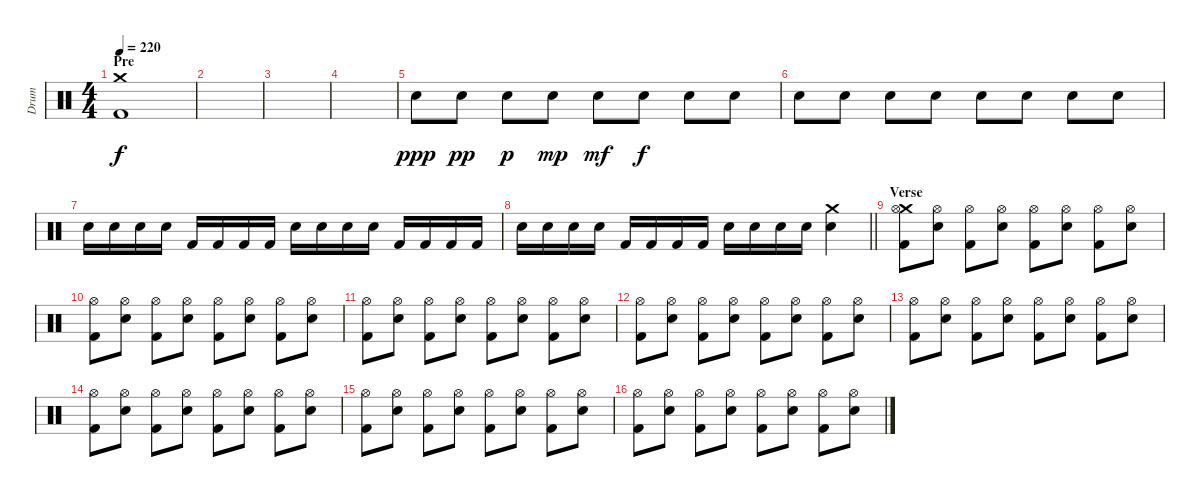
\track ("Drum" "Drum") {instrument percussion}
\staff {score}
\articulation defaults
\ts (4 4)
\section ("" "Pre")
\tempo 220
\clef neutral
\ks c
("Crash medium (hit)" "Kick (hit) 2").1{dy f} |
|
|
|
"Electric Snare (hit)".8{dy ppp} "Electric Snare (hit)".8{dy pp} "Electric Snare (hit)".8{dy p} "Electric Snare (hit)".8{dy mp} "Electric Snare (hit)".8{dy mf} "Electric Snare (hit)".8{dy f} "Electric Snare (hit)".8 "Electric Snare (hit)".8 |
"Electric Snare (hit)".8 "Electric Snare (hit)".8 "Electric Snare (hit)".8 "Electric Snare (hit)".8 "Electric Snare (hit)".8 "Electric Snare (hit)".8 "Electric Snare (hit)".8 "Electric Snare (hit)".8 |
"Electric Snare (hit)".16 "Electric Snare (hit)".16 "Electric Snare (hit)".16 "Electric Snare (hit)".16 "Kick (hit) 2".16 "Kick (hit) 2".16 "Kick (hit) 2".16 "Kick (hit) 2".16 "Electric Snare (hit)".16 "Electric Snare (hit)".16 "Electric Snare (hit)".16 "Electric Snare (hit)".16 "Kick (hit) 2".16 "Kick (hit) 2".16 "Kick (hit) 2".16 "Kick (hit) 2".16 |
\barLineRight lightlight "Electric Snare (hit)".16 "Electric Snare (hit)".16 "Electric Snare (hit)".16 "Electric Snare (hit)".16 "Kick (hit) 2".16 "Kick (hit) 2".16 "Kick (hit) 2".16 "Kick (hit) 2".16 "Electric Snare (hit)".16 "Electric Snare (hit)".16 "Electric Snare (hit)".16 "Electric Snare (hit)".16
("Crash medium (hit)" "Electric Snare (hit)").4 |
\section ("" "Verse")
("Crash medium (hit)" "Hi-Hat (open)" "Kick (hit) 2").8 ("Hi-Hat (open)" "Electric Snare (hit)").8 ("Hi-Hat (open)" "Kick (hit) 2").8 ("Hi-Hat (open)" "Electric Snare (hit)").8 ("Hi-Hat (open)" "Kick (hit) 2").8 ("Hi-Hat (open)" "Electric Snare (hit)").8 ("Hi-Hat (open)" "Kick (hit) 2").8 ("Hi-Hat (open)" "Electric Snare (hit)").8 |
("Hi-Hat (open)" "Kick (hit) 2").8 ("Hi-Hat (open)" "Electric Snare (hit)").8 ("Hi-Hat (open)" "Kick (hit) 2").8 ("Hi-Hat (open)" "Electric Snare (hit)").8 ("Hi-Hat (open)" "Kick (hit) 2").8 ("Hi-Hat (open)" "Electric Snare (hit)").8 ("Hi-Hat (open)" "Kick (hit) 2").8 ("Hi-Hat (open)" "Electric Snare (hit)").8 |
("Hi-Hat (open)" "Kick (hit) 2").8 ("Hi-Hat (open)" "Electric Snare (hit)").8 ("Hi-Hat (open)" "Kick (hit) 2").8 ("Hi-Hat (open)" "Electric Snare (hit)").8 ("Hi-Hat (open)" "Kick (hit) 2").8 ("Hi-Hat (open)" "Electric Snare (hit)").8 ("Hi-Hat (open)" "Kick (hit) 2").8 ("Hi-Hat (open)" "Electric Snare (hit)").8 |
("Hi-Hat (open)" "Kick (hit) 2").8 ("Hi-Hat (open)" "Electric Snare (hit)").8 ("Hi-Hat (open)" "Kick (hit) 2").8 ("Hi-Hat (open)" "Electric Snare (hit)").8 ("Hi-Hat (open)" "Kick (hit) 2").8 ("Hi-Hat (open)" "Electric Snare (hit)").8 ("Hi-Hat (open)" "Kick (hit) 2").8 ("Hi-Hat (open)" "Electric Snare (hit)").8 |
("Hi-Hat (open)" "Kick (hit) 2").8 ("Hi-Hat (open)" "Electric Snare (hit)").8 ("Hi-Hat (open)" "Kick (hit) 2").8 ("Hi-Hat (open)" "Electric Snare (hit)").8 ("Hi-Hat (open)" "Kick (hit) 2").8 ("Hi-Hat (open)" "Electric Snare (hit)").8 ("Hi-Hat (open)" "Kick (hit) 2").8 ("Hi-Hat (open)" "Electric Snare (hit)").8 |
("Hi-Hat (open)" "Kick (hit) 2").8 ("Hi-Hat (open)" "Electric Snare (hit)").8 ("Hi-Hat (open)" "Kick (hit) 2").8 ("Hi-Hat (open)" "Electric Snare (hit)").8 ("Hi-Hat (open)" "Kick (hit) 2").8 ("Hi-Hat (open)" "Electric Snare (hit)").8 ("Hi-Hat (open)" "Kick (hit) 2").8 ("Hi-Hat (open)" "Electric Snare (hit)").8 |
("Hi-Hat (open)" "Kick (hit) 2").8 ("Hi-Hat (open)" "Electric Snare (hit)").8 ("Hi-Hat (open)" "Kick (hit) 2").8 ("Hi-Hat (open)" "Electric Snare (hit)").8 ("Hi-Hat (open)" "Kick (hit) 2").8 ("Hi-Hat (open)" "Electric Snare (hit)").8 ("Hi-Hat (open)" "Kick (hit) 2").8 ("Hi-Hat (open)" "Electric Snare (hit)").8 |
("Hi-Hat (open)" "Kick (hit) 2").8 ("Hi-Hat (open)" "Electric Snare (hit)").8 ("Hi-Hat (open)" "Kick (hit) 2").8 ("Hi-Hat (open)" "Electric Snare (hit)").8 ("Hi-Hat (open)" "Kick (hit) 2").8 ("Hi-Hat (open)" "Electric Snare (hit)").8 ("Hi-Hat (open)" "Kick (hit) 2").8 ("Hi-Hat (open)" "Electric Snare (hit)").8
